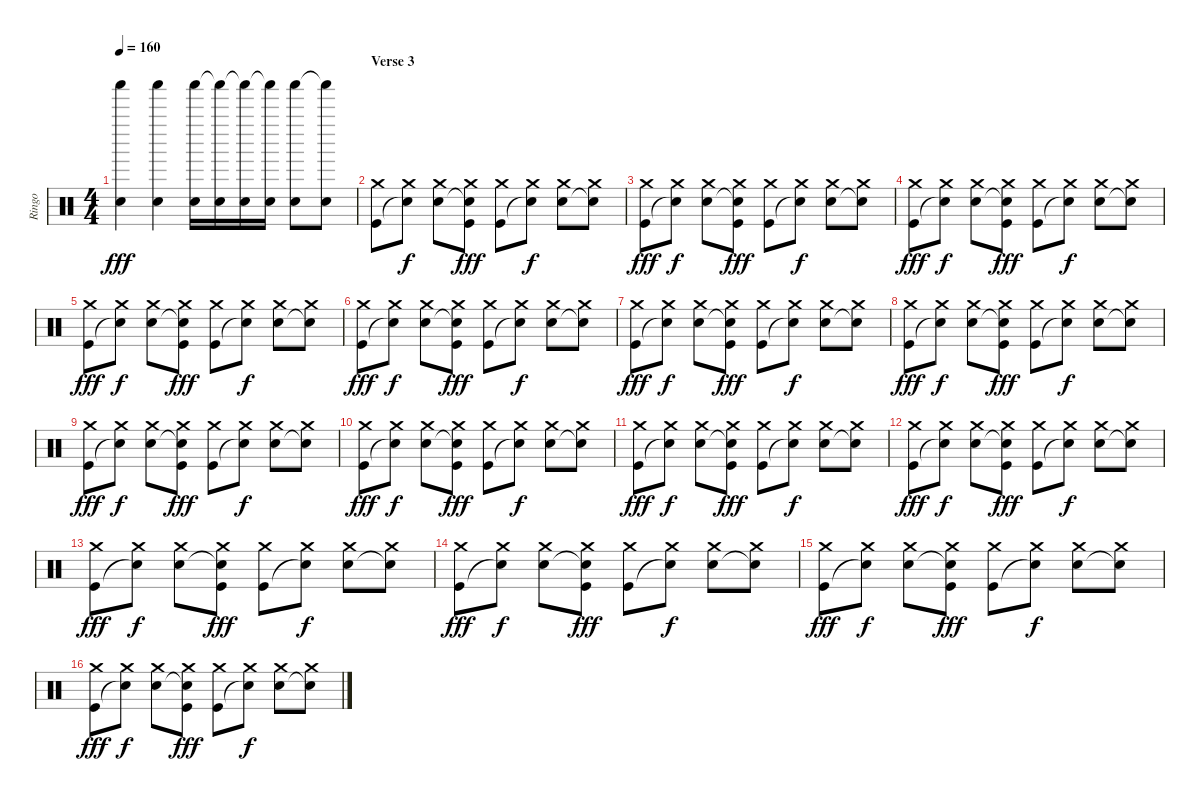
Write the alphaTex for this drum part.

\track ("Ringo" "Ringo") {instrument percussion}
\staff {score}
\articulation defaults
\ts (4 4)
\tempo 160
\clef neutral
\ks c
("Shaker (hit)" "Snare (hit) 2").4{dy fff} ("Shaker (hit)" "Snare (hit) 2").4 ("Shaker (hit)" "Snare (hit) 2").16 ("Shaker (hit)"{t} "Snare (hit) 2").16 ("Shaker (hit)"{t} "Snare (hit) 2").16 ("Shaker (hit)"{t} "Snare (hit) 2").16 ("Shaker (hit)" "Snare (hit) 2").8 ("Shaker (hit)"{t} "Snare (hit) 2").8 |
\section ("" "Verse 3")
("Crash medium (hit)" "Kick (hit)").8 ("Crash medium (hit)" "Snare (hit)"{t}).8{dy f} ("Crash medium (hit)" "Snare (hit) 2").8 ("Crash medium (hit)" "Snare (hit)"{t} "Kick (hit)").8{dy fff} ("Crash medium (hit)" "Kick (hit)").8 ("Crash medium (hit)" "Snare (hit)"{t}).8{dy f} ("Crash medium (hit)" "Snare (hit) 2").8 ("Crash medium (hit)" "Snare (hit)"{t}).8 |
("Crash medium (hit)" "Kick (hit)").8{dy fff} ("Crash medium (hit)" "Snare (hit)"{t}).8{dy f} ("Crash medium (hit)" "Snare (hit) 2").8 ("Crash medium (hit)" "Snare (hit)"{t} "Kick (hit)").8{dy fff} ("Crash medium (hit)" "Kick (hit)").8 ("Crash medium (hit)" "Snare (hit)"{t}).8{dy f} ("Crash medium (hit)" "Snare (hit) 2").8 ("Crash medium (hit)" "Snare (hit)"{t}).8 |
("Crash medium (hit)" "Kick (hit)").8{dy fff} ("Crash medium (hit)" "Snare (hit)"{t}).8{dy f} ("Crash medium (hit)" "Snare (hit) 2").8 ("Crash medium (hit)" "Snare (hit)"{t} "Kick (hit)").8{dy fff} ("Crash medium (hit)" "Kick (hit)").8 ("Crash medium (hit)" "Snare (hit)"{t}).8{dy f} ("Crash medium (hit)" "Snare (hit) 2").8 ("Crash medium (hit)" "Snare (hit)"{t}).8 |
("Crash medium (hit)" "Kick (hit)").8{dy fff} ("Crash medium (hit)" "Snare (hit)"{t}).8{dy f} ("Crash medium (hit)" "Snare (hit) 2").8 ("Crash medium (hit)" "Snare (hit)"{t} "Kick (hit)").8{dy fff} ("Crash medium (hit)" "Kick (hit)").8 ("Crash medium (hit)" "Snare (hit)"{t}).8{dy f} ("Crash medium (hit)" "Snare (hit) 2").8 ("Crash medium (hit)" "Snare (hit)"{t}).8 |
("Crash medium (hit)" "Kick (hit)").8{dy fff} ("Crash medium (hit)" "Snare (hit)"{t}).8{dy f} ("Crash medium (hit)" "Snare (hit) 2").8 ("Crash medium (hit)" "Snare (hit)"{t} "Kick (hit)").8{dy fff} ("Crash medium (hit)" "Kick (hit)").8 ("Crash medium (hit)" "Snare (hit)"{t}).8{dy f} ("Crash medium (hit)" "Snare (hit) 2").8 ("Crash medium (hit)" "Snare (hit)"{t}).8 |
("Crash medium (hit)" "Kick (hit)").8{dy fff} ("Crash medium (hit)" "Snare (hit)"{t}).8{dy f} ("Crash medium (hit)" "Snare (hit) 2").8 ("Crash medium (hit)" "Snare (hit)"{t} "Kick (hit)").8{dy fff} ("Crash medium (hit)" "Kick (hit)").8 ("Crash medium (hit)" "Snare (hit)"{t}).8{dy f} ("Crash medium (hit)" "Snare (hit) 2").8 ("Crash medium (hit)" "Snare (hit)"{t}).8 |
("Crash medium (hit)" "Kick (hit)").8{dy fff} ("Crash medium (hit)" "Snare (hit)"{t}).8{dy f} ("Crash medium (hit)" "Snare (hit) 2").8 ("Crash medium (hit)" "Snare (hit)"{t} "Kick (hit)").8{dy fff} ("Crash medium (hit)" "Kick (hit)").8 ("Crash medium (hit)" "Snare (hit)"{t}).8{dy f} ("Crash medium (hit)" "Snare (hit) 2").8 ("Crash medium (hit)" "Snare (hit)"{t}).8 |
("Crash medium (hit)" "Kick (hit)").8{dy fff} ("Crash medium (hit)" "Snare (hit)"{t}).8{dy f} ("Crash medium (hit)" "Snare (hit) 2").8 ("Crash medium (hit)" "Snare (hit)"{t} "Kick (hit)").8{dy fff} ("Crash medium (hit)" "Kick (hit)").8 ("Crash medium (hit)" "Snare (hit)"{t}).8{dy f} ("Crash medium (hit)" "Snare (hit) 2").8 ("Crash medium (hit)" "Snare (hit)"{t}).8 |
("Crash medium (hit)" "Kick (hit)").8{dy fff} ("Crash medium (hit)" "Snare (hit)"{t}).8{dy f} ("Crash medium (hit)" "Snare (hit) 2").8 ("Crash medium (hit)" "Snare (hit)"{t} "Kick (hit)").8{dy fff} ("Crash medium (hit)" "Kick (hit)").8 ("Crash medium (hit)" "Snare (hit)"{t}).8{dy f} ("Crash medium (hit)" "Snare (hit) 2").8 ("Crash medium (hit)" "Snare (hit)"{t}).8 |
("Crash medium (hit)" "Kick (hit)").8{dy fff} ("Crash medium (hit)" "Snare (hit)"{t}).8{dy f} ("Crash medium (hit)" "Snare (hit) 2").8 ("Crash medium (hit)" "Snare (hit)"{t} "Kick (hit)").8{dy fff} ("Crash medium (hit)" "Kick (hit)").8 ("Crash medium (hit)" "Snare (hit)"{t}).8{dy f} ("Crash medium (hit)" "Snare (hit) 2").8 ("Crash medium (hit)" "Snare (hit)"{t}).8 |
("Crash medium (hit)" "Kick (hit)").8{dy fff} ("Crash medium (hit)" "Snare (hit)"{t}).8{dy f} ("Crash medium (hit)" "Snare (hit) 2").8 ("Crash medium (hit)" "Snare (hit)"{t} "Kick (hit)").8{dy fff} ("Crash medium (hit)" "Kick (hit)").8 ("Crash medium (hit)" "Snare (hit)"{t}).8{dy f} ("Crash medium (hit)" "Snare (hit) 2").8 ("Crash medium (hit)" "Snare (hit)"{t}).8 |
("Crash medium (hit)" "Kick (hit)").8{dy fff} ("Crash medium (hit)" "Snare (hit)"{t}).8{dy f} ("Crash medium (hit)" "Snare (hit) 2").8 ("Crash medium (hit)" "Snare (hit)"{t} "Kick (hit)").8{dy fff} ("Crash medium (hit)" "Kick (hit)").8 ("Crash medium (hit)" "Snare (hit)"{t}).8{dy f} ("Crash medium (hit)" "Snare (hit) 2").8 ("Crash medium (hit)" "Snare (hit)"{t}).8 |
("Crash medium (hit)" "Kick (hit)").8{dy fff} ("Crash medium (hit)" "Snare (hit)"{t}).8{dy f} ("Crash medium (hit)" "Snare (hit) 2").8 ("Crash medium (hit)" "Snare (hit)"{t} "Kick (hit)").8{dy fff} ("Crash medium (hit)" "Kick (hit)").8 ("Crash medium (hit)" "Snare (hit)"{t}).8{dy f} ("Crash medium (hit)" "Snare (hit) 2").8 ("Crash medium (hit)" "Snare (hit)"{t}).8 |
("Crash medium (hit)" "Kick (hit)").8{dy fff} ("Crash medium (hit)" "Snare (hit)"{t}).8{dy f} ("Crash medium (hit)" "Snare (hit) 2").8 ("Crash medium (hit)" "Snare (hit)"{t} "Kick (hit)").8{dy fff} ("Crash medium (hit)" "Kick (hit)").8 ("Crash medium (hit)" "Snare (hit)"{t}).8{dy f} ("Crash medium (hit)" "Snare (hit) 2").8 ("Crash medium (hit)" "Snare (hit)"{t}).8 |
("Crash medium (hit)" "Kick (hit)").8{dy fff} ("Crash medium (hit)" "Snare (hit)"{t}).8{dy f} ("Crash medium (hit)" "Snare (hit) 2").8 ("Crash medium (hit)" "Snare (hit)"{t} "Kick (hit)").8{dy fff} ("Crash medium (hit)" "Kick (hit)").8 ("Crash medium (hit)" "Snare (hit)"{t}).8{dy f} ("Crash medium (hit)" "Snare (hit) 2").8 ("Crash medium (hit)" "Snare (hit)"{t}).8
